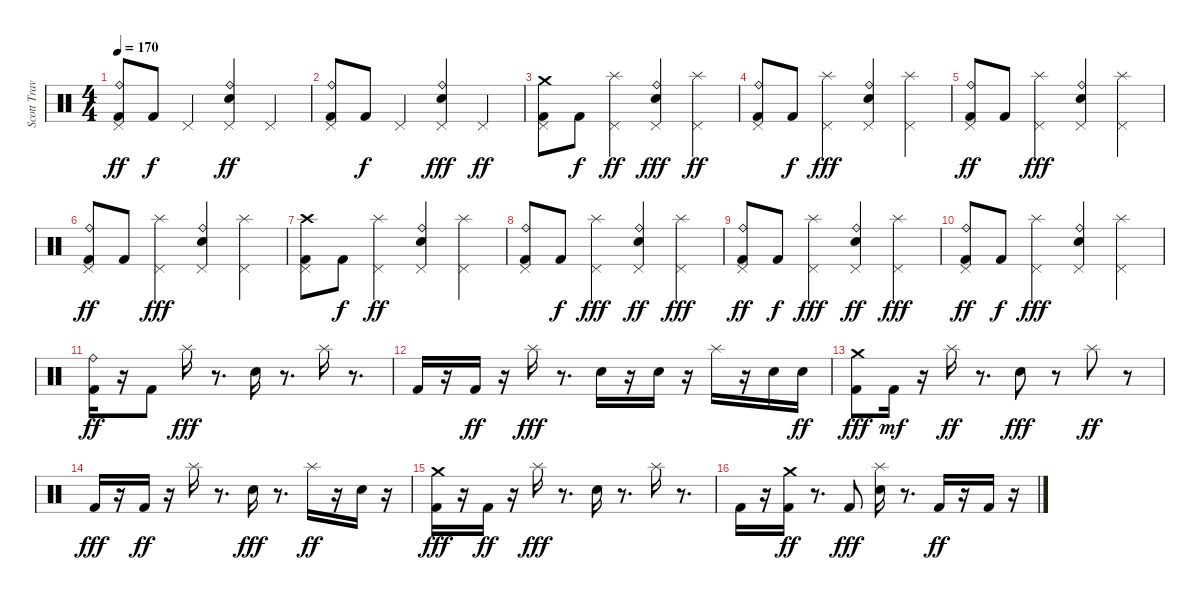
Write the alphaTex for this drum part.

\track ("Scott Travis" "Scott Trav") {instrument percussion}
\staff {score}
\articulation defaults
\ts (4 4)
\tempo 170
\clef neutral
\ks c
("Pedal Hi-Hat (hit)" "Kick (hit) 2" "Ride (bell)").8{dy ff} "Kick (hit) 2".8{dy f} "Pedal Hi-Hat (hit)".4 ("Pedal Hi-Hat (hit)" "Snare (hit) 2" "Ride (bell)").4{dy ff} "Pedal Hi-Hat (hit)".4 |
("Pedal Hi-Hat (hit)" "Kick (hit) 2" "Ride (bell)").8 "Kick (hit) 2".8{dy f} "Pedal Hi-Hat (hit)".4 ("Pedal Hi-Hat (hit)" "Ride (bell)" "Snare (hit) 2").4{dy fff} "Pedal Hi-Hat (hit)".4{dy ff} |
("Pedal Hi-Hat (hit)" "Crash medium (hit)" "Kick (hit) 2").8 "Kick (hit) 2".8{dy f} ("Pedal Hi-Hat (hit)" "Splash (hit)").4{dy ff} ("Pedal Hi-Hat (hit)" "Ride (bell)" "Snare (hit) 2").4{dy fff} ("Pedal Hi-Hat (hit)" "Splash (hit)").4{dy ff} |
("Pedal Hi-Hat (hit)" "Ride (bell)" "Kick (hit) 2").8 "Kick (hit) 2".8{dy f} ("Pedal Hi-Hat (hit)" "Splash (hit)").4{dy fff} ("Pedal Hi-Hat (hit)" "Snare (hit) 2" "Ride (bell)").4 ("Pedal Hi-Hat (hit)" "Splash (hit)").4 |
("Pedal Hi-Hat (hit)" "Kick (hit) 2" "Ride (bell)").8{dy ff} "Kick (hit) 2".8 ("Pedal Hi-Hat (hit)" "Splash (hit)").4{dy fff} ("Pedal Hi-Hat (hit)" "Snare (hit) 2" "Ride (bell)").4 ("Pedal Hi-Hat (hit)" "Splash (hit)").4 |
("Pedal Hi-Hat (hit)" "Kick (hit) 2" "Ride (bell)").8{dy ff} "Kick (hit) 2".8 ("Pedal Hi-Hat (hit)" "Splash (hit)").4{dy fff} ("Pedal Hi-Hat (hit)" "Snare (hit) 2" "Ride (bell)").4 ("Pedal Hi-Hat (hit)" "Splash (hit)").4 |
("Pedal Hi-Hat (hit)" "Kick (hit) 2" "Crash high (hit)").8 "Kick (hit) 2".8{dy f} ("Pedal Hi-Hat (hit)" "Splash (hit)").4{dy ff} ("Pedal Hi-Hat (hit)" "Snare (hit) 2" "Ride (bell)").4 ("Pedal Hi-Hat (hit)" "Splash (hit)").4 |
("Pedal Hi-Hat (hit)" "Kick (hit) 2" "Ride (bell)").8 "Kick (hit) 2".8{dy f} ("Pedal Hi-Hat (hit)" "Splash (hit)").4{dy fff} ("Pedal Hi-Hat (hit)" "Snare (hit) 2" "Ride (bell)").4{dy ff} ("Pedal Hi-Hat (hit)" "Splash (hit)").4{dy fff} |
("Pedal Hi-Hat (hit)" "Kick (hit) 2" "Ride (bell)").8{dy ff} "Kick (hit) 2".8{dy f} ("Pedal Hi-Hat (hit)" "Splash (hit)").4{dy fff} ("Pedal Hi-Hat (hit)" "Snare (hit) 2" "Ride (bell)").4{dy ff} ("Pedal Hi-Hat (hit)" "Splash (hit)").4{dy fff} |
("Pedal Hi-Hat (hit)" "Kick (hit) 2" "Ride (bell)").8{dy ff} "Kick (hit) 2".8{dy f} ("Pedal Hi-Hat (hit)" "Splash (hit)").4{dy fff} ("Pedal Hi-Hat (hit)" "Ride (bell)" "Snare (hit) 2").4 ("Pedal Hi-Hat (hit)" "Splash (hit)").4 |
("Kick (hit) 2" "Ride (bell)").16{dy ff} r.16 "Kick (hit) 2".8 "Splash (hit)".16{dy fff} r.8{d} "Snare (hit) 2".16 r.8{d} "Splash (hit)".16 r.8{d} |
"Kick (hit) 2".16 r.16 "Kick (hit) 2".16{dy ff} r.16 "Splash (hit)".16{dy fff} r.8{d} "Snare (hit) 2".16 r.16 "Snare (hit) 2".16 r.16 "Splash (hit)".16 r.16 "Snare (hit) 2".16 "Snare (hit) 2".16{dy ff} |
("Crash medium (hit)" "Kick (hit) 2").8{dy fff} "Kick (hit) 2".16{dy mf} r.16 "Splash (hit)".16{dy ff} r.8{d} "Snare (hit) 2".8{dy fff} r.8 "Splash (hit)".8{dy ff} r.8 |
"Kick (hit) 2".16{dy fff} r.16 "Kick (hit) 2".16{dy ff} r.16 "Splash (hit)".16 r.8{d} "Snare (hit) 2".16{dy fff} r.8{d} "Splash (hit)".16{dy ff} r.16 "Snare (hit) 2".16 r.16 |
("Crash medium (hit)" "Kick (hit) 2").16{dy fff} r.16 "Kick (hit) 2".16{dy ff} r.16 "Splash (hit)".16{dy fff} r.8{d} "Snare (hit) 2".16 r.8{d} "Splash (hit)".16 r.8{d} |
"Kick (hit) 2".16 r.16 ("Kick (hit) 2" "Crash medium (hit)").16{dy ff} r.8{d} "Kick (hit) 2".8{dy fff} ("Snare (hit) 2" "Splash (hit)").16 r.8{d} "Kick (hit) 2".16{dy ff} r.16 "Kick (hit) 2".16 r.16
